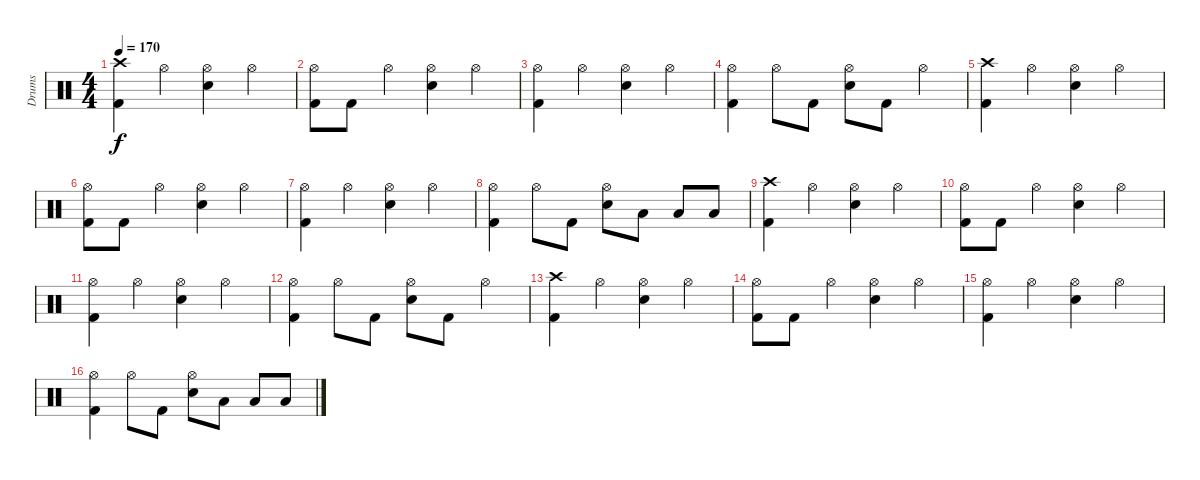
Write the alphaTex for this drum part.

\track ("Drums" "Drums") {instrument percussion}
\staff {score}
\articulation defaults
\ts (4 4)
\tempo 170
\clef neutral
\ks c
("Crash high (hit)" "Kick (hit) 2").4{dy f} "Hi-Hat (open)".4 ("Hi-Hat (open)" "Electric Snare (hit)").4 "Hi-Hat (open)".4 |
("Hi-Hat (open)" "Kick (hit) 2").8 "Kick (hit) 2".8 "Hi-Hat (open)".4 ("Hi-Hat (open)" "Electric Snare (hit)").4 "Hi-Hat (open)".4 |
("Hi-Hat (open)" "Kick (hit) 2").4 "Hi-Hat (open)".4 ("Hi-Hat (open)" "Electric Snare (hit)").4 "Hi-Hat (open)".4 |
("Hi-Hat (open)" "Kick (hit) 2").4 "Hi-Hat (open)".8 "Kick (hit) 2".8 ("Hi-Hat (open)" "Electric Snare (hit)").8 "Kick (hit) 2".8 "Hi-Hat (open)".4 |
("Crash high (hit)" "Kick (hit) 2").4 "Hi-Hat (open)".4 ("Hi-Hat (open)" "Electric Snare (hit)").4 "Hi-Hat (open)".4 |
("Hi-Hat (open)" "Kick (hit) 2").8 "Kick (hit) 2".8 "Hi-Hat (open)".4 ("Hi-Hat (open)" "Electric Snare (hit)").4 "Hi-Hat (open)".4 |
("Hi-Hat (open)" "Kick (hit) 2").4 "Hi-Hat (open)".4 ("Hi-Hat (open)" "Electric Snare (hit)").4 "Hi-Hat (open)".4 |
("Hi-Hat (open)" "Kick (hit) 2").4 "Hi-Hat (open)".8 "Kick (hit) 2".8 ("Hi-Hat (open)" "Electric Snare (hit)").8 "Low Tom (hit)".8 "Low Tom (hit)".8 "Low Tom (hit)".8 |
("Crash high (hit)" "Kick (hit) 2").4 "Hi-Hat (open)".4 ("Hi-Hat (open)" "Electric Snare (hit)").4 "Hi-Hat (open)".4 |
("Hi-Hat (open)" "Kick (hit) 2").8 "Kick (hit) 2".8 "Hi-Hat (open)".4 ("Hi-Hat (open)" "Electric Snare (hit)").4 "Hi-Hat (open)".4 |
("Hi-Hat (open)" "Kick (hit) 2").4 "Hi-Hat (open)".4 ("Hi-Hat (open)" "Electric Snare (hit)").4 "Hi-Hat (open)".4 |
("Hi-Hat (open)" "Kick (hit) 2").4 "Hi-Hat (open)".8 "Kick (hit) 2".8 ("Hi-Hat (open)" "Electric Snare (hit)").8 "Kick (hit) 2".8 "Hi-Hat (open)".4 |
("Crash high (hit)" "Kick (hit) 2").4 "Hi-Hat (open)".4 ("Hi-Hat (open)" "Electric Snare (hit)").4 "Hi-Hat (open)".4 |
("Hi-Hat (open)" "Kick (hit) 2").8 "Kick (hit) 2".8 "Hi-Hat (open)".4 ("Hi-Hat (open)" "Electric Snare (hit)").4 "Hi-Hat (open)".4 |
("Hi-Hat (open)" "Kick (hit) 2").4 "Hi-Hat (open)".4 ("Hi-Hat (open)" "Electric Snare (hit)").4 "Hi-Hat (open)".4 |
("Hi-Hat (open)" "Kick (hit) 2").4 "Hi-Hat (open)".8 "Kick (hit) 2".8 ("Hi-Hat (open)" "Electric Snare (hit)").8 "Low Tom (hit)".8 "Low Tom (hit)".8 "Low Tom (hit)".8
